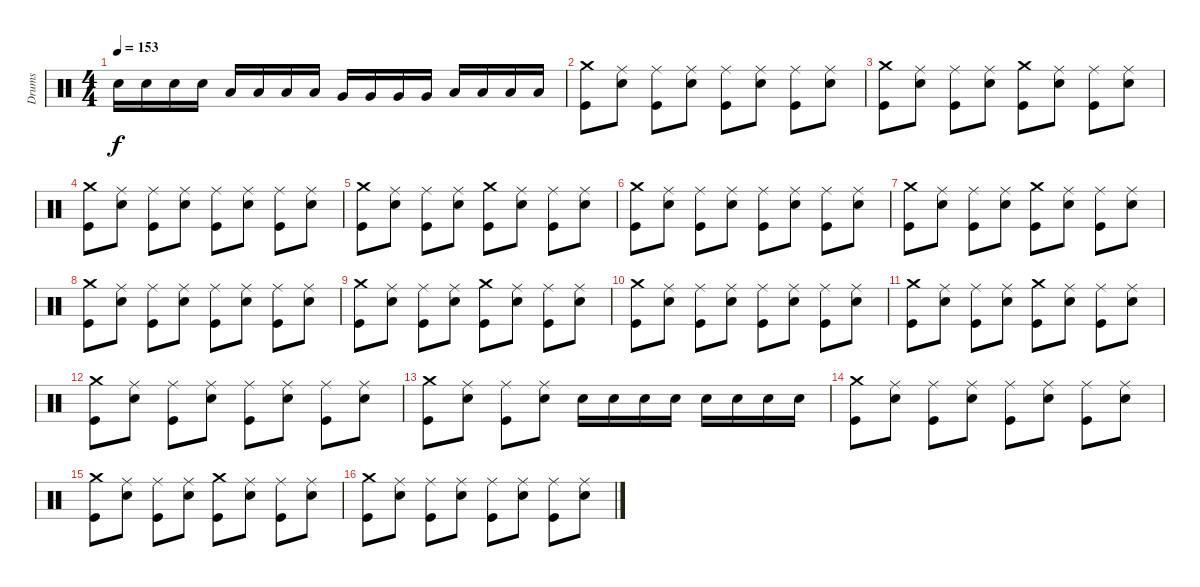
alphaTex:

\track ("Drums" "Drums") {instrument percussion}
\staff {score}
\articulation defaults
\ts (4 4)
\tempo 153
\clef neutral
\ks c "Snare (hit) 2".16{dy f} "Snare (hit) 2".16 "Snare (hit) 2".16 "Snare (hit) 2".16 "Low Tom (hit)".16 "Low Tom (hit)".16 "Low Tom (hit)".16 "Low Tom (hit)".16 "Very Low Tom (hit)".16 "Very Low Tom (hit)".16 "Very Low Tom (hit)".16 "Very Low Tom (hit)".16 "Low Floor Tom (hit)".16 "Low Floor Tom (hit)".16 "Low Floor Tom (hit)".16 "Low Floor Tom (hit)".16
|
("Crash medium (hit)" "Kick (hit)").8 ("Ride (middle)" "Snare (hit) 2").8 ("Ride (middle)" "Kick (hit)").8 ("Ride (middle)" "Snare (hit) 2").8 ("Ride (middle)" "Kick (hit)").8 ("Ride (middle)" "Snare (hit) 2").8 ("Ride (middle)" "Kick (hit)").8 ("Ride (middle)" "Snare (hit) 2").8 |
("Crash medium (hit)" "Kick (hit)").8 ("Ride (middle)" "Snare (hit) 2").8 ("Ride (middle)" "Kick (hit)").8 ("Ride (middle)" "Snare (hit) 2").8 ("Crash medium (hit)" "Kick (hit)").8 ("Ride (middle)" "Snare (hit) 2").8 ("Ride (middle)" "Kick (hit)").8 ("Ride (middle)" "Snare (hit) 2").8 |
("Crash medium (hit)" "Kick (hit)").8 ("Ride (middle)" "Snare (hit) 2").8 ("Ride (middle)" "Kick (hit)").8 ("Ride (middle)" "Snare (hit) 2").8 ("Ride (middle)" "Kick (hit)").8 ("Ride (middle)" "Snare (hit) 2").8 ("Ride (middle)" "Kick (hit)").8 ("Ride (middle)" "Snare (hit) 2").8 |
("Crash medium (hit)" "Kick (hit)").8 ("Ride (middle)" "Snare (hit) 2").8 ("Ride (middle)" "Kick (hit)").8 ("Ride (middle)" "Snare (hit) 2").8 ("Crash medium (hit)" "Kick (hit)").8 ("Ride (middle)" "Snare (hit) 2").8 ("Ride (middle)" "Kick (hit)").8 ("Ride (middle)" "Snare (hit) 2").8 |
("Crash medium (hit)" "Kick (hit)").8 ("Ride (middle)" "Snare (hit) 2").8 ("Ride (middle)" "Kick (hit)").8 ("Ride (middle)" "Snare (hit) 2").8 ("Ride (middle)" "Kick (hit)").8 ("Ride (middle)" "Snare (hit) 2").8 ("Ride (middle)" "Kick (hit)").8 ("Ride (middle)" "Snare (hit) 2").8 |
("Crash medium (hit)" "Kick (hit)").8 ("Ride (middle)" "Snare (hit) 2").8 ("Ride (middle)" "Kick (hit)").8 ("Ride (middle)" "Snare (hit) 2").8 ("Crash medium (hit)" "Kick (hit)").8 ("Ride (middle)" "Snare (hit) 2").8 ("Ride (middle)" "Kick (hit)").8 ("Ride (middle)" "Snare (hit) 2").8 |
("Crash medium (hit)" "Kick (hit)").8 ("Ride (middle)" "Snare (hit) 2").8 ("Ride (middle)" "Kick (hit)").8 ("Ride (middle)" "Snare (hit) 2").8 ("Ride (middle)" "Kick (hit)").8 ("Ride (middle)" "Snare (hit) 2").8 ("Ride (middle)" "Kick (hit)").8 ("Ride (middle)" "Snare (hit) 2").8 |
("Crash medium (hit)" "Kick (hit)").8 ("Ride (middle)" "Snare (hit) 2").8 ("Ride (middle)" "Kick (hit)").8 ("Ride (middle)" "Snare (hit) 2").8 ("Crash medium (hit)" "Kick (hit)").8 ("Ride (middle)" "Snare (hit) 2").8 ("Ride (middle)" "Kick (hit)").8 ("Ride (middle)" "Snare (hit) 2").8 |
("Crash medium (hit)" "Kick (hit)").8 ("Ride (middle)" "Snare (hit) 2").8 ("Ride (middle)" "Kick (hit)").8 ("Ride (middle)" "Snare (hit) 2").8 ("Ride (middle)" "Kick (hit)").8 ("Ride (middle)" "Snare (hit) 2").8 ("Ride (middle)" "Kick (hit)").8 ("Ride (middle)" "Snare (hit) 2").8 |
("Crash medium (hit)" "Kick (hit)").8 ("Ride (middle)" "Snare (hit) 2").8 ("Ride (middle)" "Kick (hit)").8 ("Ride (middle)" "Snare (hit) 2").8 ("Crash medium (hit)" "Kick (hit)").8 ("Ride (middle)" "Snare (hit) 2").8 ("Ride (middle)" "Kick (hit)").8 ("Ride (middle)" "Snare (hit) 2").8 |
("Crash medium (hit)" "Kick (hit)").8 ("Ride (middle)" "Snare (hit) 2").8 ("Ride (middle)" "Kick (hit)").8 ("Ride (middle)" "Snare (hit) 2").8 ("Ride (middle)" "Kick (hit)").8 ("Ride (middle)" "Snare (hit) 2").8 ("Ride (middle)" "Kick (hit)").8 ("Ride (middle)" "Snare (hit) 2").8 |
("Crash medium (hit)" "Kick (hit)").8 ("Ride (middle)" "Snare (hit) 2").8 ("Ride (middle)" "Kick (hit)").8 ("Ride (middle)" "Snare (hit) 2").8 "Snare (hit) 2".16 "Snare (hit) 2".16 "Snare (hit) 2".16 "Snare (hit) 2".16 "Snare (hit) 2".16 "Snare (hit) 2".16 "Snare (hit) 2".16 "Snare (hit) 2".16 |
("Crash medium (hit)" "Kick (hit)").8 ("Ride (middle)" "Snare (hit) 2").8 ("Ride (middle)" "Kick (hit)").8 ("Ride (middle)" "Snare (hit) 2").8 ("Ride (middle)" "Kick (hit)").8 ("Ride (middle)" "Snare (hit) 2").8 ("Ride (middle)" "Kick (hit)").8 ("Ride (middle)" "Snare (hit) 2").8 |
("Crash medium (hit)" "Kick (hit)").8 ("Ride (middle)" "Snare (hit) 2").8 ("Ride (middle)" "Kick (hit)").8 ("Ride (middle)" "Snare (hit) 2").8 ("Crash medium (hit)" "Kick (hit)").8 ("Ride (middle)" "Snare (hit) 2").8 ("Ride (middle)" "Kick (hit)").8 ("Ride (middle)" "Snare (hit) 2").8 |
("Crash medium (hit)" "Kick (hit)").8 ("Ride (middle)" "Snare (hit) 2").8 ("Ride (middle)" "Kick (hit)").8 ("Ride (middle)" "Snare (hit) 2").8 ("Ride (middle)" "Kick (hit)").8 ("Ride (middle)" "Snare (hit) 2").8 ("Ride (middle)" "Kick (hit)").8 ("Ride (middle)" "Snare (hit) 2").8
